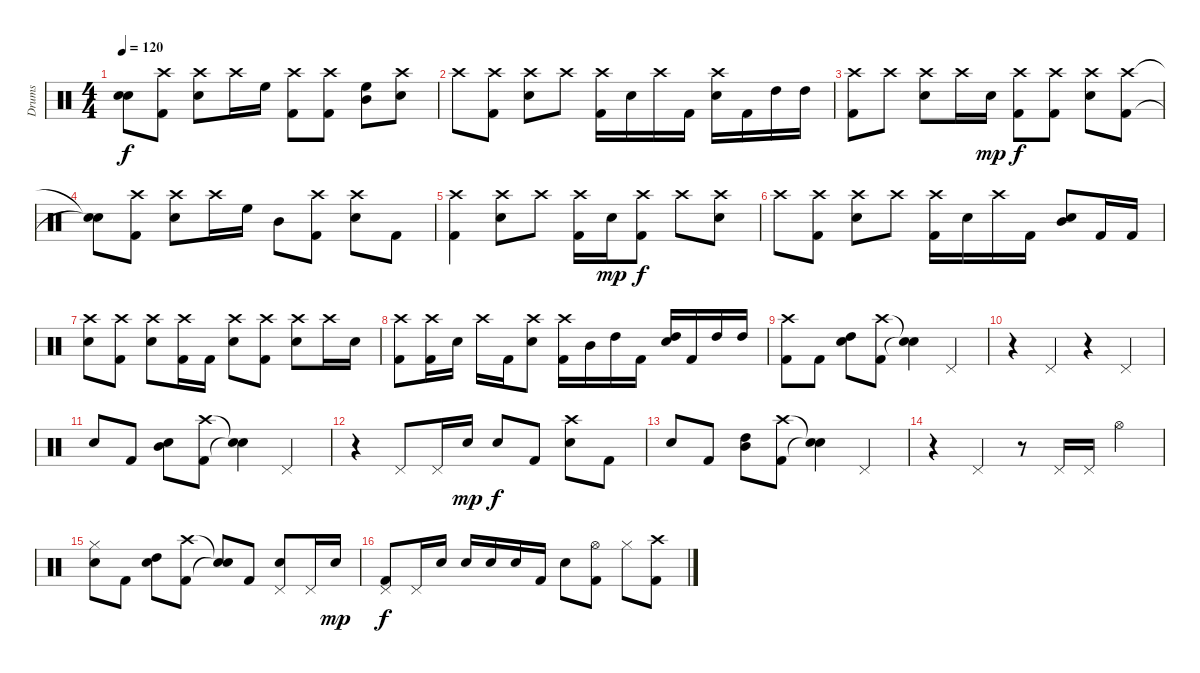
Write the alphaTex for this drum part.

\track ("Drums" "Drums") {instrument percussion}
\staff {score}
\articulation defaults
\ts (4 4)
\tempo 120
\clef neutral
\ks c
("Snare (hit)"{t} "Snare (hit)"{t}).8{dy f} ("Crash high (hit)" "Kick (hit) 2").8 ("Crash high (hit)" "Electric Snare (hit)").8 "Crash high (hit)".16 "High Floor Tom (hit)".16 ("Crash high (hit)" "Kick (hit) 2").8 ("Crash high (hit)" "Kick (hit) 2").8 ("High Floor Tom (hit)" "Mid Tom (hit)").8 ("Crash high (hit)" "Electric Snare (hit)").8 |
"Crash high (hit)".8 ("Crash high (hit)" "Kick (hit) 2").8 ("Crash high (hit)" "Electric Snare (hit)").8 "Crash high (hit)".8 ("Crash high (hit)" "Kick (hit) 2").16 "Electric Snare (hit)".16 "Crash high (hit)".16 "Kick (hit) 2".16 ("Crash high (hit)" "Electric Snare (hit)").16 "Kick (hit) 2".16 "High Tom (hit)".16 "High Tom (hit)".16 |
("Crash high (hit)" "Kick (hit) 2").8 "Crash high (hit)".8 ("Crash high (hit)" "Electric Snare (hit)").8 "Crash high (hit)".16 "Electric Snare (hit)".16{dy mp} ("Crash high (hit)" "Kick (hit) 2").8{dy f} ("Crash high (hit)" "Kick (hit) 2").8 ("Crash high (hit)" "Electric Snare (hit)").8 ("Crash high (hit)" "Kick (hit) 2").8 |
("Snare (hit)"{t} "Snare (hit)"{t}).8 ("Crash high (hit)" "Kick (hit) 2").8 ("Crash high (hit)" "Electric Snare (hit)").8 "Crash high (hit)".16 "High Floor Tom (hit)".16 "Mid Tom (hit)".8 ("Crash high (hit)" "Kick (hit) 2").8 ("Crash high (hit)" "Electric Snare (hit)").8 "Kick (hit) 2".8 |
("Crash high (hit)" "Kick (hit) 2").4 ("Crash high (hit)" "Electric Snare (hit)").8 "Crash high (hit)".8 ("Crash high (hit)" "Kick (hit) 2").16 "Electric Snare (hit)".16{dy mp} ("Crash high (hit)" "Kick (hit) 2").8{dy f} "Crash high (hit)".8 ("Crash high (hit)" "Electric Snare (hit)").8 |
"Crash high (hit)".8 ("Crash high (hit)" "Kick (hit) 2").8 ("Crash high (hit)" "Electric Snare (hit)").8 "Crash high (hit)".8 ("Crash high (hit)" "Kick (hit) 2").16 "Electric Snare (hit)".16 "Crash high (hit)".16 "Kick (hit) 2".16 ("Mid Tom (hit)" "Electric Snare (hit)").8 "Kick (hit) 2".16 "Kick (hit) 2".16 |
("Crash high (hit)" "Electric Snare (hit)").8 ("Crash high (hit)" "Kick (hit) 2").8 ("Crash high (hit)" "Electric Snare (hit)").8 ("Crash high (hit)" "Kick (hit) 2").16 "Kick (hit) 2".16 ("Crash high (hit)" "Electric Snare (hit)").8 ("Crash high (hit)" "Kick (hit) 2").8 ("Crash high (hit)" "Electric Snare (hit)").8 "Crash high (hit)".16 "Electric Snare (hit)".16 |
("Crash high (hit)" "Kick (hit) 2").8 ("Crash high (hit)" "Kick (hit) 2").16 "Electric Snare (hit)".16 "Crash high (hit)".16 "Kick (hit) 2".16 ("Crash high (hit)" "Electric Snare (hit)").8 ("Crash high (hit)" "Kick (hit) 2").16 "Mid Tom (hit)".16 "High Tom (hit)".16 "Kick (hit) 2".16 ("Electric Snare (hit)" "High Tom (hit)").16 "Kick (hit) 2".16 "High Tom (hit)".16 "High Tom (hit)".16 |
("Crash high (hit)" "Kick (hit) 2").8 "Kick (hit) 2".8 ("Electric Snare (hit)" "High Tom (hit)").8 ("Crash high (hit)" "Kick (hit) 2").8 ("Snare (hit)"{t} "Snare (hit)"{t}).4 "Pedal Hi-Hat (hit)".4 |
r.4 "Pedal Hi-Hat (hit)".4 r.4 "Pedal Hi-Hat (hit)".4 |
"Electric Snare (hit)".8 "Kick (hit) 2".8 ("Mid Tom (hit)" "Electric Snare (hit)").8 ("Crash high (hit)" "Kick (hit) 2").8 ("Snare (hit)"{t} "Snare (hit)"{t}).4 "Pedal Hi-Hat (hit)".4 |
r.4 "Pedal Hi-Hat (hit)".8 "Pedal Hi-Hat (hit)".16 "Electric Snare (hit)".16{dy mp} "Electric Snare (hit)".8{dy f} "Kick (hit) 2".8 ("Crash high (hit)" "Electric Snare (hit)").8 "Kick (hit) 2".8 |
"Electric Snare (hit)".8 "Kick (hit) 2".8 ("Mid Tom (hit)" "High Tom (hit)").8 ("Crash high (hit)" "Kick (hit) 2").8 ("Snare (hit)"{t} "Snare (hit)"{t}).4 "Pedal Hi-Hat (hit)".4 |
r.4 "Pedal Hi-Hat (hit)".4 r.8 "Pedal Hi-Hat (hit)".16 "Pedal Hi-Hat (hit)".16 "Hi-Hat (open)".4 |
("Hi-Hat (closed)" "Electric Snare (hit)").8 "Kick (hit) 2".8 ("Electric Snare (hit)" "High Tom (hit)").8 ("Crash high (hit)" "Kick (hit) 2").8 ("Snare (hit)"{t} "Snare (hit)"{t}).8 "Kick (hit) 2".8 ("Pedal Hi-Hat (hit)" "Electric Snare (hit)").8 "Pedal Hi-Hat (hit)".16 "Electric Snare (hit)".16{dy mp} |
("Pedal Hi-Hat (hit)" "Kick (hit) 2").8{dy f} "Pedal Hi-Hat (hit)".16 "Electric Snare (hit)".16 "Electric Snare (hit)".16 "Electric Snare (hit)".16 "Electric Snare (hit)".16 "Kick (hit) 2".16 "Electric Snare (hit)".8 ("Hi-Hat (open)" "Kick (hit) 2").8 "Hi-Hat (closed)".8 ("Crash high (hit)" "Kick (hit) 2").8
